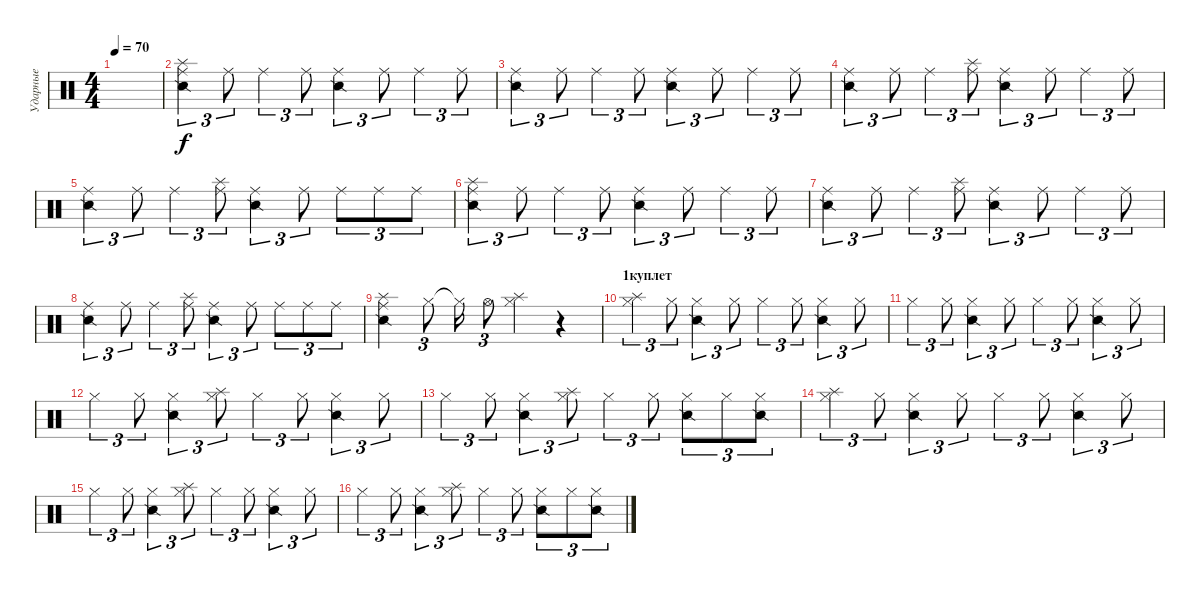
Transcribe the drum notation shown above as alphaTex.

\track ("Ударные" "Ударные") {instrument percussion}
\staff {score}
\articulation defaults
\ts (4 4)
\tempo 70
\clef neutral
\ks c
|
("Snare (side stick) 2" "Splash (hit)" "Ride (middle)").4{tu (3 2)} "Ride (middle)".8{tu (3 2)} "Ride (middle)".4{tu (3 2)} "Ride (middle)".8{tu (3 2)} ("Snare (side stick) 2" "Ride (middle)").4{tu (3 2)} "Ride (middle)".8{tu (3 2)} "Ride (middle)".4{tu (3 2)} "Ride (middle)".8{tu (3 2)} |
("Snare (side stick) 2" "Ride (middle)").4{tu (3 2)} "Ride (middle)".8{tu (3 2)} "Ride (middle)".4{tu (3 2)} "Ride (middle)".8{tu (3 2)} ("Snare (side stick) 2" "Ride (middle)").4{tu (3 2)} "Ride (middle)".8{tu (3 2)} "Ride (middle)".4{tu (3 2)} "Ride (middle)".8{tu (3 2)} |
("Snare (side stick) 2" "Ride (middle)").4{tu (3 2)} "Ride (middle)".8{tu (3 2)} "Ride (middle)".4{tu (3 2)} ("Splash (hit)" "Ride (middle)").8{tu (3 2)} ("Snare (side stick) 2" "Ride (middle)").4{tu (3 2)} "Ride (middle)".8{tu (3 2)} "Ride (middle)".4{tu (3 2)} "Ride (middle)".8{tu (3 2)} |
("Snare (side stick) 2" "Ride (middle)").4{tu (3 2)} "Ride (middle)".8{tu (3 2)} "Ride (middle)".4{tu (3 2)} ("Splash (hit)" "Ride (middle)").8{tu (3 2)} ("Snare (side stick) 2" "Ride (middle)").4{tu (3 2)} "Ride (middle)".8{tu (3 2)} "Ride (middle)".8{tu (3 2)} "Ride (middle)".8{tu (3 2)} "Ride (middle)".8{tu (3 2)} |
("Snare (side stick) 2" "Splash (hit)" "Ride (middle)").4{tu (3 2)} "Ride (middle)".8{tu (3 2)} "Ride (middle)".4{tu (3 2)} "Ride (middle)".8{tu (3 2)} ("Snare (side stick) 2" "Ride (middle)").4{tu (3 2)} "Ride (middle)".8{tu (3 2)} "Ride (middle)".4{tu (3 2)} "Ride (middle)".8{tu (3 2)} |
("Snare (side stick) 2" "Ride (middle)").4{tu (3 2)} "Ride (middle)".8{tu (3 2)} "Ride (middle)".4{tu (3 2)} ("Splash (hit)" "Ride (middle)").8{tu (3 2)} ("Snare (side stick) 2" "Ride (middle)").4{tu (3 2)} "Ride (middle)".8{tu (3 2)} "Ride (middle)".4{tu (3 2)} "Ride (middle)".8{tu (3 2)} |
("Snare (side stick) 2" "Ride (middle)").4{tu (3 2)} "Ride (middle)".8{tu (3 2)} "Ride (middle)".4{tu (3 2)} ("Splash (hit)" "Ride (middle)").8{tu (3 2)} ("Snare (side stick) 2" "Ride (middle)").4{tu (3 2)} "Ride (middle)".8{tu (3 2)} "Ride (middle)".8{tu (3 2)} "Ride (middle)".8{tu (3 2)} "Ride (middle)".8{tu (3 2)} |
("Snare (side stick) 2" "Splash (hit)" "Ride (middle)").4 "Hi-Hat (closed)".8{tu (3 2)} "Hi-Hat (closed)"{t}.16 "Hi-Hat (open)".8{tu (3 2)} ("Hi-Hat (closed)" "Splash (hit)").4 r.4 |
\section ("" "1куплет")
("Splash (hit)" "Hi-Hat (closed)").4{tu (3 2)} "Hi-Hat (closed)".8{tu (3 2)} ("Snare (side stick) 2" "Hi-Hat (closed)").4{tu (3 2)} "Hi-Hat (closed)".8{tu (3 2)} "Hi-Hat (closed)".4{tu (3 2)} "Hi-Hat (closed)".8{tu (3 2)} ("Snare (side stick) 2" "Hi-Hat (closed)").4{tu (3 2)} "Hi-Hat (closed)".8{tu (3 2)} |
"Hi-Hat (closed)".4{tu (3 2)} "Hi-Hat (closed)".8{tu (3 2)} ("Snare (side stick) 2" "Hi-Hat (closed)").4{tu (3 2)} "Hi-Hat (closed)".8{tu (3 2)} "Hi-Hat (closed)".4{tu (3 2)} "Hi-Hat (closed)".8{tu (3 2)} ("Snare (side stick) 2" "Hi-Hat (closed)").4{tu (3 2)} "Hi-Hat (closed)".8{tu (3 2)} |
"Hi-Hat (closed)".4{tu (3 2)} "Hi-Hat (closed)".8{tu (3 2)} ("Snare (side stick) 2" "Hi-Hat (closed)").4{tu (3 2)} ("Splash (hit)" "Hi-Hat (closed)").8{tu (3 2)} "Hi-Hat (closed)".4{tu (3 2)} "Hi-Hat (closed)".8{tu (3 2)} ("Snare (side stick) 2" "Hi-Hat (closed)").4{tu (3 2)} "Hi-Hat (closed)".8{tu (3 2)} |
"Hi-Hat (closed)".4{tu (3 2)} "Hi-Hat (closed)".8{tu (3 2)} ("Snare (side stick) 2" "Hi-Hat (closed)").4{tu (3 2)} ("Splash (hit)" "Hi-Hat (closed)").8{tu (3 2)} "Hi-Hat (closed)".4{tu (3 2)} "Hi-Hat (closed)".8{tu (3 2)} ("Snare (side stick) 2" "Hi-Hat (closed)").8{tu (3 2)} "Hi-Hat (closed)".8{tu (3 2)} ("Snare (side stick) 2" "Hi-Hat (closed)").8{tu (3 2)} |
("Splash (hit)" "Hi-Hat (closed)").4{tu (3 2)} "Hi-Hat (closed)".8{tu (3 2)} ("Snare (side stick) 2" "Hi-Hat (closed)").4{tu (3 2)} "Hi-Hat (closed)".8{tu (3 2)} "Hi-Hat (closed)".4{tu (3 2)} "Hi-Hat (closed)".8{tu (3 2)} ("Snare (side stick) 2" "Hi-Hat (closed)").4{tu (3 2)} "Hi-Hat (closed)".8{tu (3 2)} |
"Hi-Hat (closed)".4{tu (3 2)} "Hi-Hat (closed)".8{tu (3 2)} ("Snare (side stick) 2" "Hi-Hat (closed)").4{tu (3 2)} ("Splash (hit)" "Hi-Hat (closed)").8{tu (3 2)} "Hi-Hat (closed)".4{tu (3 2)} "Hi-Hat (closed)".8{tu (3 2)} ("Snare (side stick) 2" "Hi-Hat (closed)").4{tu (3 2)} "Hi-Hat (closed)".8{tu (3 2)} |
"Hi-Hat (closed)".4{tu (3 2)} "Hi-Hat (closed)".8{tu (3 2)} ("Snare (side stick) 2" "Hi-Hat (closed)").4{tu (3 2)} ("Splash (hit)" "Hi-Hat (closed)").8{tu (3 2)} "Hi-Hat (closed)".4{tu (3 2)} "Hi-Hat (closed)".8{tu (3 2)} ("Snare (side stick) 2" "Hi-Hat (closed)").8{tu (3 2)} "Hi-Hat (closed)".8{tu (3 2)} ("Snare (side stick) 2" "Hi-Hat (closed)").8{tu (3 2)}
